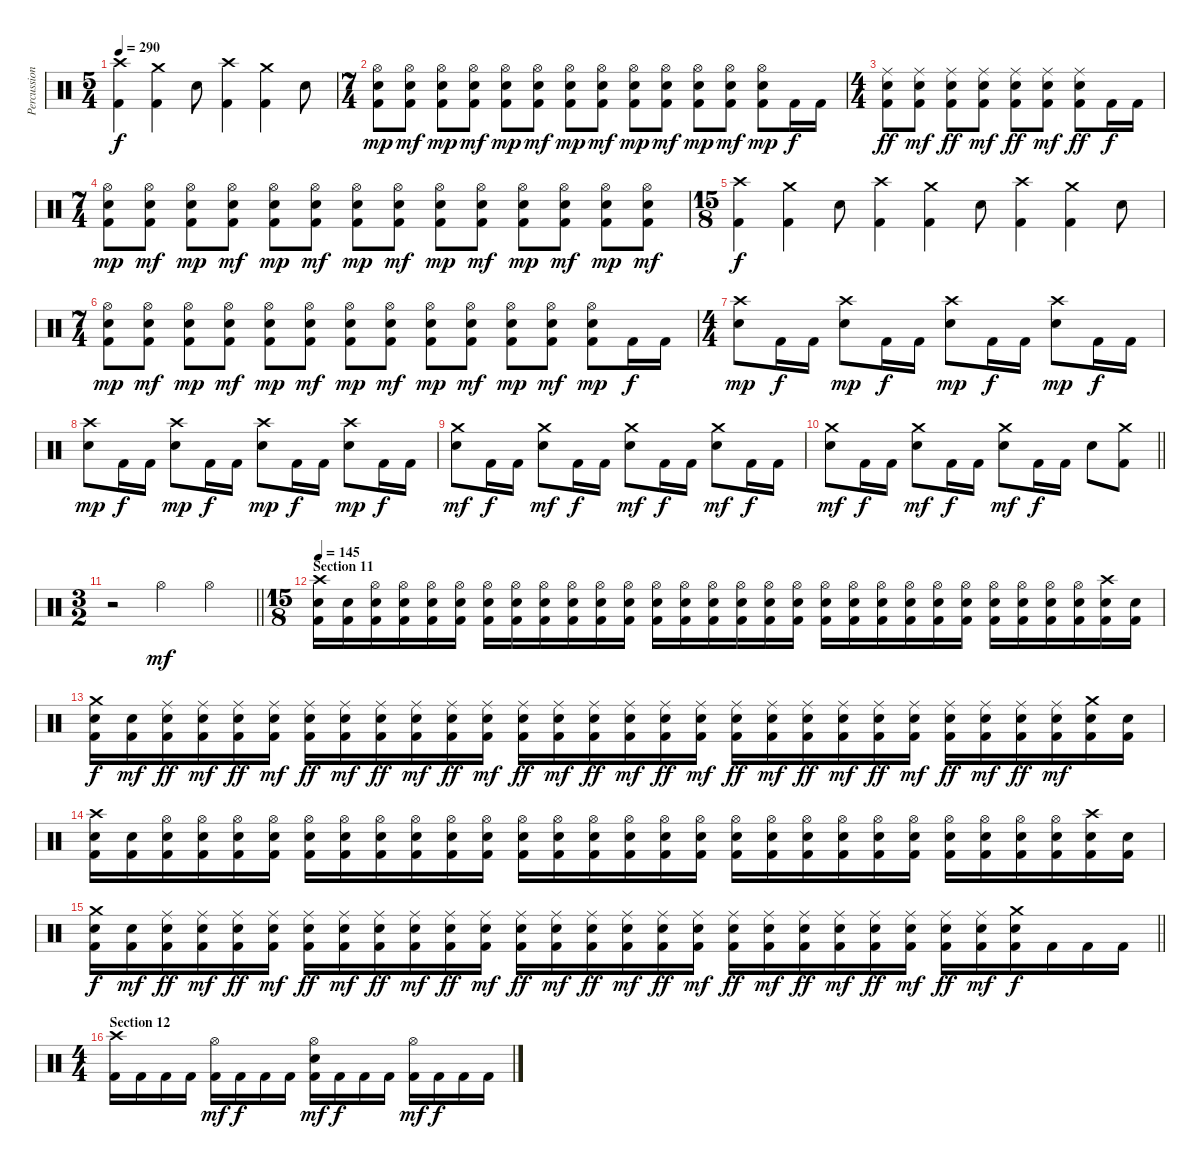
\track ("Percussion" "Percussion") {instrument percussion}
\staff {score}
\articulation defaults
\ts (5 4)
\tempo 290
\clef neutral
\ks c
("Crash high (hit)" "Kick (hit) 2").4{dy f} ("Crash medium (hit)" "Kick (hit) 2").4 "Electric Snare (hit)".8 ("Crash high (hit)" "Kick (hit) 2").4 ("Crash medium (hit)" "Kick (hit) 2").4 "Electric Snare (hit)".8 |
\ts (7 4)
("Hi-Hat (open)" "Electric Snare (hit)" "Kick (hit) 2").8{dy mp} ("Hi-Hat (open)" "Electric Snare (hit)" "Kick (hit) 2").8{dy mf} ("Hi-Hat (open)" "Electric Snare (hit)" "Kick (hit) 2").8{dy mp} ("Hi-Hat (open)" "Electric Snare (hit)" "Kick (hit) 2").8{dy mf} ("Hi-Hat (open)" "Electric Snare (hit)" "Kick (hit) 2").8{dy mp} ("Hi-Hat (open)" "Electric Snare (hit)" "Kick (hit) 2").8{dy mf} ("Hi-Hat (open)" "Electric Snare (hit)" "Kick (hit) 2").8{dy mp} ("Hi-Hat (open)" "Electric Snare (hit)" "Kick (hit) 2").8{dy mf} ("Hi-Hat (open)" "Electric Snare (hit)" "Kick (hit) 2").8{dy mp} ("Hi-Hat (open)" "Electric Snare (hit)" "Kick (hit) 2").8{dy mf} ("Hi-Hat (open)" "Electric Snare (hit)" "Kick (hit) 2").8{dy mp} ("Hi-Hat (open)" "Electric Snare (hit)" "Kick (hit) 2").8{dy mf} ("Hi-Hat (open)" "Electric Snare (hit)" "Kick (hit) 2").8{dy mp} "Kick (hit) 2".16{dy f} "Kick (hit) 2".16 |
\ts (4 4)
("Ride (middle)" "Electric Snare (hit)" "Kick (hit) 2").8{dy ff} ("Ride (middle)" "Electric Snare (hit)" "Kick (hit) 2").8{dy mf} ("Ride (middle)" "Electric Snare (hit)" "Kick (hit) 2").8{dy ff} ("Ride (middle)" "Electric Snare (hit)" "Kick (hit) 2").8{dy mf} ("Ride (middle)" "Electric Snare (hit)" "Kick (hit) 2").8{dy ff} ("Ride (middle)" "Electric Snare (hit)" "Kick (hit) 2").8{dy mf} ("Ride (middle)" "Electric Snare (hit)" "Kick (hit) 2").8{dy ff} "Kick (hit) 2".16{dy f} "Kick (hit) 2".16 |
\ts (7 4)
("Hi-Hat (open)" "Electric Snare (hit)" "Kick (hit) 2").8{dy mp} ("Hi-Hat (open)" "Electric Snare (hit)" "Kick (hit) 2").8{dy mf} ("Hi-Hat (open)" "Electric Snare (hit)" "Kick (hit) 2").8{dy mp} ("Hi-Hat (open)" "Electric Snare (hit)" "Kick (hit) 2").8{dy mf} ("Hi-Hat (open)" "Electric Snare (hit)" "Kick (hit) 2").8{dy mp} ("Hi-Hat (open)" "Electric Snare (hit)" "Kick (hit) 2").8{dy mf} ("Hi-Hat (open)" "Electric Snare (hit)" "Kick (hit) 2").8{dy mp} ("Hi-Hat (open)" "Electric Snare (hit)" "Kick (hit) 2").8{dy mf} ("Hi-Hat (open)" "Electric Snare (hit)" "Kick (hit) 2").8{dy mp} ("Hi-Hat (open)" "Electric Snare (hit)" "Kick (hit) 2").8{dy mf} ("Hi-Hat (open)" "Electric Snare (hit)" "Kick (hit) 2").8{dy mp} ("Hi-Hat (open)" "Electric Snare (hit)" "Kick (hit) 2").8{dy mf} ("Hi-Hat (open)" "Electric Snare (hit)" "Kick (hit) 2").8{dy mp} ("Hi-Hat (open)" "Electric Snare (hit)" "Kick (hit) 2").8{dy mf} |
\ts (15 8)
("Crash high (hit)" "Kick (hit) 2").4{dy f} ("Crash medium (hit)" "Kick (hit) 2").4 "Electric Snare (hit)".8 ("Crash high (hit)" "Kick (hit) 2").4 ("Crash medium (hit)" "Kick (hit) 2").4 "Electric Snare (hit)".8 ("Crash high (hit)" "Kick (hit) 2").4 ("Crash medium (hit)" "Kick (hit) 2").4 "Electric Snare (hit)".8 |
\ts (7 4)
("Hi-Hat (open)" "Electric Snare (hit)" "Kick (hit) 2").8{dy mp} ("Hi-Hat (open)" "Electric Snare (hit)" "Kick (hit) 2").8{dy mf} ("Hi-Hat (open)" "Electric Snare (hit)" "Kick (hit) 2").8{dy mp} ("Hi-Hat (open)" "Electric Snare (hit)" "Kick (hit) 2").8{dy mf} ("Hi-Hat (open)" "Electric Snare (hit)" "Kick (hit) 2").8{dy mp} ("Hi-Hat (open)" "Electric Snare (hit)" "Kick (hit) 2").8{dy mf} ("Hi-Hat (open)" "Electric Snare (hit)" "Kick (hit) 2").8{dy mp} ("Hi-Hat (open)" "Electric Snare (hit)" "Kick (hit) 2").8{dy mf} ("Hi-Hat (open)" "Electric Snare (hit)" "Kick (hit) 2").8{dy mp} ("Hi-Hat (open)" "Electric Snare (hit)" "Kick (hit) 2").8{dy mf} ("Hi-Hat (open)" "Electric Snare (hit)" "Kick (hit) 2").8{dy mp} ("Hi-Hat (open)" "Electric Snare (hit)" "Kick (hit) 2").8{dy mf} ("Hi-Hat (open)" "Electric Snare (hit)" "Kick (hit) 2").8{dy mp} "Kick (hit) 2".16{dy f} "Kick (hit) 2".16 |
\ts (4 4)
("Crash high (hit)" "Electric Snare (hit)").8{dy mp} "Kick (hit) 2".16{dy f} "Kick (hit) 2".16 ("Crash high (hit)" "Electric Snare (hit)").8{dy mp} "Kick (hit) 2".16{dy f} "Kick (hit) 2".16 ("Crash high (hit)" "Electric Snare (hit)").8{dy mp} "Kick (hit) 2".16{dy f} "Kick (hit) 2".16 ("Crash high (hit)" "Electric Snare (hit)").8{dy mp} "Kick (hit) 2".16{dy f} "Kick (hit) 2".16 |
("Crash high (hit)" "Electric Snare (hit)").8{dy mp} "Kick (hit) 2".16{dy f} "Kick (hit) 2".16 ("Crash high (hit)" "Electric Snare (hit)").8{dy mp} "Kick (hit) 2".16{dy f} "Kick (hit) 2".16 ("Crash high (hit)" "Electric Snare (hit)").8{dy mp} "Kick (hit) 2".16{dy f} "Kick (hit) 2".16 ("Crash high (hit)" "Electric Snare (hit)").8{dy mp} "Kick (hit) 2".16{dy f} "Kick (hit) 2".16 |
("Crash medium (hit)" "Electric Snare (hit)").8{dy mf} "Kick (hit) 2".16{dy f} "Kick (hit) 2".16 ("Crash medium (hit)" "Electric Snare (hit)").8{dy mf} "Kick (hit) 2".16{dy f} "Kick (hit) 2".16 ("Crash medium (hit)" "Electric Snare (hit)").8{dy mf} "Kick (hit) 2".16{dy f} "Kick (hit) 2".16 ("Crash medium (hit)" "Electric Snare (hit)").8{dy mf} "Kick (hit) 2".16{dy f} "Kick (hit) 2".16 |
\barLineRight lightlight
("Crash medium (hit)" "Electric Snare (hit)").8{dy mf} "Kick (hit) 2".16{dy f} "Kick (hit) 2".16 ("Crash medium (hit)" "Electric Snare (hit)").8{dy mf} "Kick (hit) 2".16{dy f} "Kick (hit) 2".16 ("Crash medium (hit)" "Electric Snare (hit)").8{dy mf} "Kick (hit) 2".16{dy f} "Kick (hit) 2".16 "Electric Snare (hit)".8 ("Crash medium (hit)" "Kick (hit) 2").8 |
\ts (3 2)
\barLineRight lightlight
r.2 "Hi-Hat (open)".2{dy mf} "Hi-Hat (open)".2 |
\ts (15 8)
\section ("" "Section 11")
\tempo 145
("Crash high (hit)" "Electric Snare (hit)" "Kick (hit) 2").16 ("Electric Snare (hit)" "Kick (hit) 2").16 ("Hi-Hat (open)" "Electric Snare (hit)" "Kick (hit) 2").16 ("Hi-Hat (open)" "Electric Snare (hit)" "Kick (hit) 2").16 ("Hi-Hat (open)" "Electric Snare (hit)" "Kick (hit) 2").16 ("Hi-Hat (open)" "Electric Snare (hit)" "Kick (hit) 2").16 ("Hi-Hat (open)" "Electric Snare (hit)" "Kick (hit) 2").16 ("Hi-Hat (open)" "Electric Snare (hit)" "Kick (hit) 2").16 ("Hi-Hat (open)" "Electric Snare (hit)" "Kick (hit) 2").16 ("Hi-Hat (open)" "Electric Snare (hit)" "Kick (hit) 2").16 ("Hi-Hat (open)" "Electric Snare (hit)" "Kick (hit) 2").16 ("Hi-Hat (open)" "Electric Snare (hit)" "Kick (hit) 2").16 ("Hi-Hat (open)" "Electric Snare (hit)" "Kick (hit) 2").16 ("Hi-Hat (open)" "Electric Snare (hit)" "Kick (hit) 2").16 ("Hi-Hat (open)" "Electric Snare (hit)" "Kick (hit) 2").16 ("Hi-Hat (open)" "Electric Snare (hit)" "Kick (hit) 2").16 ("Hi-Hat (open)" "Electric Snare (hit)" "Kick (hit) 2").16 ("Hi-Hat (open)" "Electric Snare (hit)" "Kick (hit) 2").16 ("Hi-Hat (open)" "Electric Snare (hit)" "Kick (hit) 2").16 ("Hi-Hat (open)" "Electric Snare (hit)" "Kick (hit) 2").16 ("Hi-Hat (open)" "Electric Snare (hit)" "Kick (hit) 2").16 ("Hi-Hat (open)" "Electric Snare (hit)" "Kick (hit) 2").16 ("Hi-Hat (open)" "Electric Snare (hit)" "Kick (hit) 2").16 ("Hi-Hat (open)" "Electric Snare (hit)" "Kick (hit) 2").16 ("Hi-Hat (open)" "Electric Snare (hit)" "Kick (hit) 2").16 ("Hi-Hat (open)" "Electric Snare (hit)" "Kick (hit) 2").16 ("Hi-Hat (open)" "Electric Snare (hit)" "Kick (hit) 2").16 ("Hi-Hat (open)" "Electric Snare (hit)" "Kick (hit) 2").16 ("Crash high (hit)" "Electric Snare (hit)" "Kick (hit) 2").16 ("Electric Snare (hit)" "Kick (hit) 2").16 |
("Crash medium (hit)" "Electric Snare (hit)" "Kick (hit) 2").16{dy f} ("Electric Snare (hit)" "Kick (hit) 2").16{dy mf} ("Ride (middle)" "Electric Snare (hit)" "Kick (hit) 2").16{dy ff} ("Ride (middle)" "Electric Snare (hit)" "Kick (hit) 2").16{dy mf} ("Ride (middle)" "Electric Snare (hit)" "Kick (hit) 2").16{dy ff} ("Ride (middle)" "Electric Snare (hit)" "Kick (hit) 2").16{dy mf} ("Ride (middle)" "Electric Snare (hit)" "Kick (hit) 2").16{dy ff} ("Ride (middle)" "Electric Snare (hit)" "Kick (hit) 2").16{dy mf} ("Ride (middle)" "Electric Snare (hit)" "Kick (hit) 2").16{dy ff} ("Ride (middle)" "Electric Snare (hit)" "Kick (hit) 2").16{dy mf} ("Ride (middle)" "Electric Snare (hit)" "Kick (hit) 2").16{dy ff} ("Ride (middle)" "Electric Snare (hit)" "Kick (hit) 2").16{dy mf} ("Ride (middle)" "Electric Snare (hit)" "Kick (hit) 2").16{dy ff} ("Ride (middle)" "Electric Snare (hit)" "Kick (hit) 2").16{dy mf} ("Ride (middle)" "Electric Snare (hit)" "Kick (hit) 2").16{dy ff} ("Ride (middle)" "Electric Snare (hit)" "Kick (hit) 2").16{dy mf} ("Ride (middle)" "Electric Snare (hit)" "Kick (hit) 2").16{dy ff} ("Ride (middle)" "Electric Snare (hit)" "Kick (hit) 2").16{dy mf} ("Ride (middle)" "Electric Snare (hit)" "Kick (hit) 2").16{dy ff} ("Ride (middle)" "Electric Snare (hit)" "Kick (hit) 2").16{dy mf} ("Ride (middle)" "Electric Snare (hit)" "Kick (hit) 2").16{dy ff} ("Ride (middle)" "Electric Snare (hit)" "Kick (hit) 2").16{dy mf} ("Ride (middle)" "Electric Snare (hit)" "Kick (hit) 2").16{dy ff} ("Ride (middle)" "Electric Snare (hit)" "Kick (hit) 2").16{dy mf} ("Ride (middle)" "Electric Snare (hit)" "Kick (hit) 2").16{dy ff} ("Ride (middle)" "Electric Snare (hit)" "Kick (hit) 2").16{dy mf} ("Ride (middle)" "Electric Snare (hit)" "Kick (hit) 2").16{dy ff} ("Ride (middle)" "Electric Snare (hit)" "Kick (hit) 2").16{dy mf} ("Crash medium (hit)" "Electric Snare (hit)" "Kick (hit) 2").16 ("Electric Snare (hit)" "Kick (hit) 2").16 |
("Crash high (hit)" "Electric Snare (hit)" "Kick (hit) 2").16 ("Electric Snare (hit)" "Kick (hit) 2").16 ("Hi-Hat (open)" "Electric Snare (hit)" "Kick (hit) 2").16 ("Hi-Hat (open)" "Electric Snare (hit)" "Kick (hit) 2").16 ("Hi-Hat (open)" "Electric Snare (hit)" "Kick (hit) 2").16 ("Hi-Hat (open)" "Electric Snare (hit)" "Kick (hit) 2").16 ("Hi-Hat (open)" "Electric Snare (hit)" "Kick (hit) 2").16 ("Hi-Hat (open)" "Electric Snare (hit)" "Kick (hit) 2").16 ("Hi-Hat (open)" "Electric Snare (hit)" "Kick (hit) 2").16 ("Hi-Hat (open)" "Electric Snare (hit)" "Kick (hit) 2").16 ("Hi-Hat (open)" "Electric Snare (hit)" "Kick (hit) 2").16 ("Hi-Hat (open)" "Electric Snare (hit)" "Kick (hit) 2").16 ("Hi-Hat (open)" "Electric Snare (hit)" "Kick (hit) 2").16 ("Hi-Hat (open)" "Electric Snare (hit)" "Kick (hit) 2").16 ("Hi-Hat (open)" "Electric Snare (hit)" "Kick (hit) 2").16 ("Hi-Hat (open)" "Electric Snare (hit)" "Kick (hit) 2").16 ("Hi-Hat (open)" "Electric Snare (hit)" "Kick (hit) 2").16 ("Hi-Hat (open)" "Electric Snare (hit)" "Kick (hit) 2").16 ("Hi-Hat (open)" "Electric Snare (hit)" "Kick (hit) 2").16 ("Hi-Hat (open)" "Electric Snare (hit)" "Kick (hit) 2").16 ("Hi-Hat (open)" "Electric Snare (hit)" "Kick (hit) 2").16 ("Hi-Hat (open)" "Electric Snare (hit)" "Kick (hit) 2").16 ("Hi-Hat (open)" "Electric Snare (hit)" "Kick (hit) 2").16 ("Hi-Hat (open)" "Electric Snare (hit)" "Kick (hit) 2").16 ("Hi-Hat (open)" "Electric Snare (hit)" "Kick (hit) 2").16 ("Hi-Hat (open)" "Electric Snare (hit)" "Kick (hit) 2").16 ("Hi-Hat (open)" "Electric Snare (hit)" "Kick (hit) 2").16 ("Hi-Hat (open)" "Electric Snare (hit)" "Kick (hit) 2").16 ("Crash high (hit)" "Electric Snare (hit)" "Kick (hit) 2").16 ("Electric Snare (hit)" "Kick (hit) 2").16 |
\barLineRight lightlight
("Crash medium (hit)" "Electric Snare (hit)" "Kick (hit) 2").16{dy f} ("Electric Snare (hit)" "Kick (hit) 2").16{dy mf} ("Ride (middle)" "Electric Snare (hit)" "Kick (hit) 2").16{dy ff} ("Ride (middle)" "Electric Snare (hit)" "Kick (hit) 2").16{dy mf} ("Ride (middle)" "Electric Snare (hit)" "Kick (hit) 2").16{dy ff} ("Ride (middle)" "Electric Snare (hit)" "Kick (hit) 2").16{dy mf} ("Ride (middle)" "Electric Snare (hit)" "Kick (hit) 2").16{dy ff} ("Ride (middle)" "Electric Snare (hit)" "Kick (hit) 2").16{dy mf} ("Ride (middle)" "Electric Snare (hit)" "Kick (hit) 2").16{dy ff} ("Ride (middle)" "Electric Snare (hit)" "Kick (hit) 2").16{dy mf} ("Ride (middle)" "Electric Snare (hit)" "Kick (hit) 2").16{dy ff} ("Ride (middle)" "Electric Snare (hit)" "Kick (hit) 2").16{dy mf} ("Ride (middle)" "Electric Snare (hit)" "Kick (hit) 2").16{dy ff} ("Ride (middle)" "Electric Snare (hit)" "Kick (hit) 2").16{dy mf} ("Ride (middle)" "Electric Snare (hit)" "Kick (hit) 2").16{dy ff} ("Ride (middle)" "Electric Snare (hit)" "Kick (hit) 2").16{dy mf} ("Ride (middle)" "Electric Snare (hit)" "Kick (hit) 2").16{dy ff} ("Ride (middle)" "Electric Snare (hit)" "Kick (hit) 2").16{dy mf} ("Ride (middle)" "Electric Snare (hit)" "Kick (hit) 2").16{dy ff} ("Ride (middle)" "Electric Snare (hit)" "Kick (hit) 2").16{dy mf} ("Ride (middle)" "Electric Snare (hit)" "Kick (hit) 2").16{dy ff} ("Ride (middle)" "Electric Snare (hit)" "Kick (hit) 2").16{dy mf} ("Ride (middle)" "Electric Snare (hit)" "Kick (hit) 2").16{dy ff} ("Ride (middle)" "Electric Snare (hit)" "Kick (hit) 2").16{dy mf} ("Ride (middle)" "Electric Snare (hit)" "Kick (hit) 2").16{dy ff} ("Ride (middle)" "Electric Snare (hit)" "Kick (hit) 2").16{dy mf} ("Crash medium (hit)" "Electric Snare (hit)" "Kick (hit) 2").16{dy f} "Kick (hit) 2".16 "Kick (hit) 2".16 "Kick (hit) 2".16 |
\ts (4 4)
\section ("" "Section 12")
("Crash high (hit)" "Kick (hit) 2").16 "Kick (hit) 2".16 "Kick (hit) 2".16 "Kick (hit) 2".16 ("Hi-Hat (open)" "Kick (hit) 2").16{dy mf} "Kick (hit) 2".16{dy f} "Kick (hit) 2".16 "Kick (hit) 2".16 ("Hi-Hat (open)" "Electric Snare (hit)" "Kick (hit) 2").16{dy mf} "Kick (hit) 2".16{dy f} "Kick (hit) 2".16 "Kick (hit) 2".16 ("Hi-Hat (open)" "Kick (hit) 2").16{dy mf} "Kick (hit) 2".16{dy f} "Kick (hit) 2".16 "Kick (hit) 2".16
